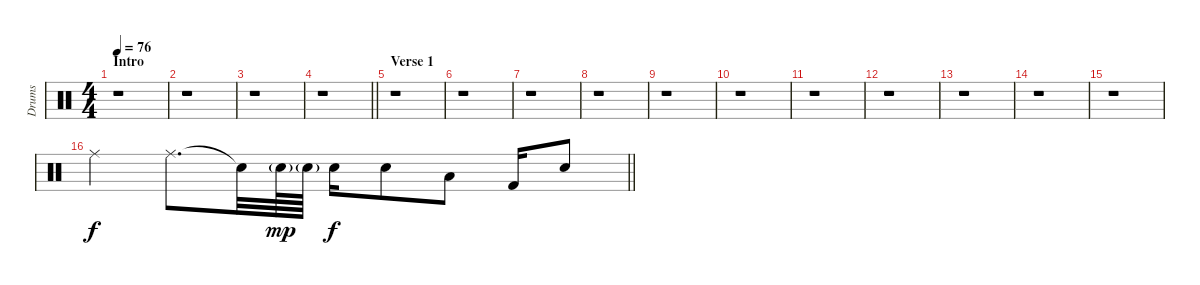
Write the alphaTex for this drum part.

\track ("Drums" "Drums") {instrument percussion}
\staff {score}
\articulation defaults
\ts (4 4)
\section ("" "Intro")
\tempo 76
\clef neutral
\ks aminor
r.1{dy f} |
r.1 |
r.1 |
\barLineRight lightlight
r.1 |
\section ("" "Verse 1")
r.1 |
r.1 |
r.1 |
r.1 |
r.1 |
r.1 |
r.1 |
r.1 |
r.1 |
r.1 |
r.1 |
\barLineRight lightlight "Ride (middle)".4 "Ride (middle)".8{d} "Snare (hit)"{t}.32 "Electric Snare (hit)"{g}.64{dy mp} "Electric Snare (hit)"{g}.64 "Electric Snare (hit)".16{dy f} "Electric Snare (hit)".8 "Low Tom (hit)".8 "Kick (hit) 2".16 "Electric Snare (hit)".8
